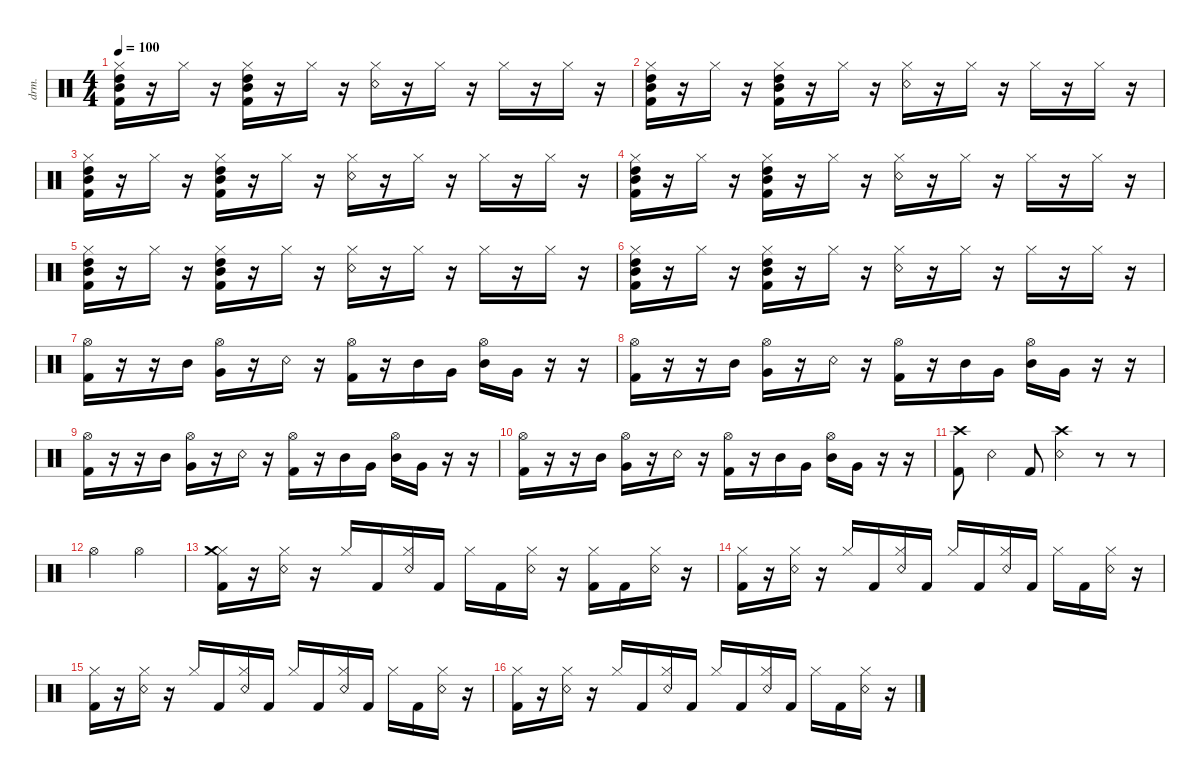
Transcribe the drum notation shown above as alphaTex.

\defaultSystemsLayout 4
\hideDynamics
\bracketExtendMode nobrackets
\otherSystemsTrackNameOrientation horizontal
\track ("Drumkit" "drm.") {instrument percussion}
\staff {score}
\articulation defaults
\ts (4 4)
\tempo 100
\clef neutral
\ks c
("Hi-Hat (closed)" "Kick (hit) 2" "High Tom (hit)" "Mid Tom (hit)").16{dy mf beam Down} r.16{beam Down} "Hi-Hat (closed)".16{beam Down} r.16{beam Down} ("Hi-Hat (closed)" "Kick (hit) 2" "Mid Tom (hit)" "High Tom (hit)").16{beam Down} r.16{beam Down} "Hi-Hat (closed)".16{beam Down} r.16{beam Down} ("Hi-Hat (closed)" "Snare (rim shot)").16{beam Down} r.16{beam Down} "Hi-Hat (closed)".16{beam Down} r.16{beam Down} "Hi-Hat (closed)".16{beam Down} r.16{beam Down} "Hi-Hat (closed)".16{beam Down} r.16{beam Down} |
("Hi-Hat (closed)" "Kick (hit) 2" "High Tom (hit)" "Mid Tom (hit)").16{beam Down} r.16{beam Down} "Hi-Hat (closed)".16{beam Down} r.16{beam Down} ("Hi-Hat (closed)" "Kick (hit) 2" "Mid Tom (hit)" "High Tom (hit)").16{beam Down} r.16{beam Down} "Hi-Hat (closed)".16{beam Down} r.16{beam Down} ("Hi-Hat (closed)" "Snare (rim shot)").16{beam Down} r.16{beam Down} "Hi-Hat (closed)".16{beam Down} r.16{beam Down} "Hi-Hat (closed)".16{beam Down} r.16{beam Down} "Hi-Hat (closed)".16{beam Down} r.16{beam Down} |
("Hi-Hat (closed)" "Kick (hit) 2" "High Tom (hit)" "Mid Tom (hit)").16{beam Down} r.16{beam Down} "Hi-Hat (closed)".16{beam Down} r.16{beam Down} ("Hi-Hat (closed)" "Kick (hit) 2" "Mid Tom (hit)" "High Tom (hit)").16{beam Down} r.16{beam Down} "Hi-Hat (closed)".16{beam Down} r.16{beam Down} ("Hi-Hat (closed)" "Snare (rim shot)").16{beam Down} r.16{beam Down} "Hi-Hat (closed)".16{beam Down} r.16{beam Down} "Hi-Hat (closed)".16{beam Down} r.16{beam Down} "Hi-Hat (closed)".16{beam Down} r.16{beam Down} |
("Hi-Hat (closed)" "Kick (hit) 2" "High Tom (hit)" "Mid Tom (hit)").16{beam Down} r.16{beam Down} "Hi-Hat (closed)".16{beam Down} r.16{beam Down} ("Hi-Hat (closed)" "Kick (hit) 2" "Mid Tom (hit)" "High Tom (hit)").16{beam Down} r.16{beam Down} "Hi-Hat (closed)".16{beam Down} r.16{beam Down} ("Hi-Hat (closed)" "Snare (rim shot)").16{beam Down} r.16{beam Down} "Hi-Hat (closed)".16{beam Down} r.16{beam Down} "Hi-Hat (closed)".16{beam Down} r.16{beam Down} "Hi-Hat (closed)".16{beam Down} r.16{beam Down} |
("Hi-Hat (closed)" "Kick (hit) 2" "High Tom (hit)" "Mid Tom (hit)").16{beam Down} r.16{beam Down} "Hi-Hat (closed)".16{beam Down} r.16{beam Down} ("Hi-Hat (closed)" "Kick (hit) 2" "Mid Tom (hit)" "High Tom (hit)").16{beam Down} r.16{beam Down} "Hi-Hat (closed)".16{beam Down} r.16{beam Down} ("Hi-Hat (closed)" "Snare (rim shot)").16{beam Down} r.16{beam Down} "Hi-Hat (closed)".16{beam Down} r.16{beam Down} "Hi-Hat (closed)".16{beam Down} r.16{beam Down} "Hi-Hat (closed)".16{beam Down} r.16{beam Down} |
("Hi-Hat (closed)" "Kick (hit) 2" "High Tom (hit)" "Mid Tom (hit)").16{beam Down} r.16{beam Down} "Hi-Hat (closed)".16{beam Down} r.16{beam Down} ("Hi-Hat (closed)" "Kick (hit) 2" "Mid Tom (hit)" "High Tom (hit)").16{beam Down} r.16{beam Down} "Hi-Hat (closed)".16{beam Down} r.16{beam Down} ("Hi-Hat (closed)" "Snare (rim shot)").16{beam Down} r.16{beam Down} "Hi-Hat (closed)".16{beam Down} r.16{beam Down} "Hi-Hat (closed)".16{beam Down} r.16{beam Down} "Hi-Hat (closed)".16{beam Down} r.16{beam Down} |
("Hi-Hat (open)" "Kick (hit) 2").16{beam Down} r.16{beam Down} r.16{beam Down} "Mid Tom (hit)".16{beam Down} ("Very Low Tom (hit)" "Hi-Hat (open)").16{beam Down} r.16{beam Down} "Snare (rim shot)".16{beam Down} r.16{beam Down} ("Hi-Hat (open)" "Kick (hit) 2").16{beam Down} r.16{beam Down} "Mid Tom (hit)".16{beam Down} "Very Low Tom (hit)".16{beam Down} ("Mid Tom (hit)" "Hi-Hat (open)").16{beam Down} "Very Low Tom (hit)".16{beam Down} r.16{beam Down} r.16{beam Down} |
("Hi-Hat (open)" "Kick (hit) 2").16{beam Down} r.16{beam Down} r.16{beam Down} "Mid Tom (hit)".16{beam Down} ("Very Low Tom (hit)" "Hi-Hat (open)").16{beam Down} r.16{beam Down} "Snare (rim shot)".16{beam Down} r.16{beam Down} ("Hi-Hat (open)" "Kick (hit) 2").16{beam Down} r.16{beam Down} "Mid Tom (hit)".16{beam Down} "Very Low Tom (hit)".16{beam Down} ("Mid Tom (hit)" "Hi-Hat (open)").16{beam Down} "Very Low Tom (hit)".16{beam Down} r.16{beam Down} r.16{beam Down} |
("Hi-Hat (open)" "Kick (hit) 2").16{beam Down} r.16{beam Down} r.16{beam Down} "Mid Tom (hit)".16{beam Down} ("Very Low Tom (hit)" "Hi-Hat (open)").16{beam Down} r.16{beam Down} "Snare (rim shot)".16{beam Down} r.16{beam Down} ("Hi-Hat (open)" "Kick (hit) 2").16{beam Down} r.16{beam Down} "Mid Tom (hit)".16{beam Down} "Very Low Tom (hit)".16{beam Down} ("Mid Tom (hit)" "Hi-Hat (open)").16{beam Down} "Very Low Tom (hit)".16{beam Down} r.16{beam Down} r.16{beam Down} |
("Hi-Hat (open)" "Kick (hit) 2").16{beam Down} r.16{beam Down} r.16{beam Down} "Mid Tom (hit)".16{beam Down} ("Very Low Tom (hit)" "Hi-Hat (open)").16{beam Down} r.16{beam Down} "Snare (rim shot)".16{beam Down} r.16{beam Down} ("Hi-Hat (open)" "Kick (hit) 2").16{beam Down} r.16{beam Down} "Mid Tom (hit)".16{beam Down} "Very Low Tom (hit)".16{beam Down} ("Mid Tom (hit)" "Hi-Hat (open)").16{beam Down} "Very Low Tom (hit)".16{beam Down} r.16{beam Down} r.16{beam Down} |
("Kick (hit) 2" "Crash high (hit)").8{beam Down} "Snare (rim shot)".4{beam Down} "Kick (hit) 2".8{beam Up} ("Snare (rim shot)" "Crash high (hit)").4{beam Down} r.8{beam Down} r.8{beam Down} |
"Hi-Hat (open)".2{beam Down} "Hi-Hat (open)".2{beam Down} |
("Hi-Hat (closed)" "Kick (hit) 2" "Crash medium (hit)").16{beam Down} r.16{beam Down} ("Hi-Hat (closed)" "Snare (rim shot)").16{beam Down} r.16{beam Down} "Hi-Hat (closed)".16{beam Up} "Kick (hit) 2".16{beam Up} ("Hi-Hat (closed)" "Snare (rim shot)").16{beam Up} "Kick (hit) 2".16{beam Up} "Hi-Hat (closed)".16{beam Down} "Kick (hit) 2".16{beam Down} ("Hi-Hat (closed)" "Snare (rim shot)").16{beam Down} r.16{beam Down} ("Hi-Hat (closed)" "Kick (hit) 2").16{beam Down} "Kick (hit) 2".16{beam Down} ("Hi-Hat (closed)" "Snare (rim shot)").16{beam Down} r.16{beam Down} |
("Hi-Hat (closed)" "Kick (hit) 2").16{beam Down} r.16{beam Down} ("Hi-Hat (closed)" "Snare (rim shot)").16{beam Down} r.16{beam Down} "Hi-Hat (closed)".16{beam Up} "Kick (hit) 2".16{beam Up} ("Hi-Hat (closed)" "Snare (rim shot)").16{beam Up} "Kick (hit) 2".16{beam Up} "Hi-Hat (closed)".16{beam Up} "Kick (hit) 2".16{beam Up} ("Hi-Hat (closed)" "Snare (rim shot)").16{beam Up} "Kick (hit) 2".16{beam Up} "Hi-Hat (closed)".16{beam Down} "Kick (hit) 2".16{beam Down} ("Hi-Hat (closed)" "Snare (rim shot)").16{beam Down} r.16{beam Down} |
("Hi-Hat (closed)" "Kick (hit) 2").16{beam Down} r.16{beam Down} ("Hi-Hat (closed)" "Snare (rim shot)").16{beam Down} r.16{beam Down} "Hi-Hat (closed)".16{beam Up} "Kick (hit) 2".16{beam Up} ("Hi-Hat (closed)" "Snare (rim shot)").16{beam Up} "Kick (hit) 2".16{beam Up} "Hi-Hat (closed)".16{beam Up} "Kick (hit) 2".16{beam Up} ("Hi-Hat (closed)" "Snare (rim shot)").16{beam Up} "Kick (hit) 2".16{beam Up} "Hi-Hat (closed)".16{beam Down} "Kick (hit) 2".16{beam Down} ("Hi-Hat (closed)" "Snare (rim shot)").16{beam Down} r.16{beam Down} |
("Hi-Hat (closed)" "Kick (hit) 2").16{beam Down} r.16{beam Down} ("Hi-Hat (closed)" "Snare (rim shot)").16{beam Down} r.16{beam Down} "Hi-Hat (closed)".16{beam Up} "Kick (hit) 2".16{beam Up} ("Hi-Hat (closed)" "Snare (rim shot)").16{beam Up} "Kick (hit) 2".16{beam Up} "Hi-Hat (closed)".16{beam Up} "Kick (hit) 2".16{beam Up} ("Hi-Hat (closed)" "Snare (rim shot)").16{beam Up} "Kick (hit) 2".16{beam Up} "Hi-Hat (closed)".16{beam Down} "Kick (hit) 2".16{beam Down} ("Hi-Hat (closed)" "Snare (rim shot)").16{beam Down} r.16{beam Down}
